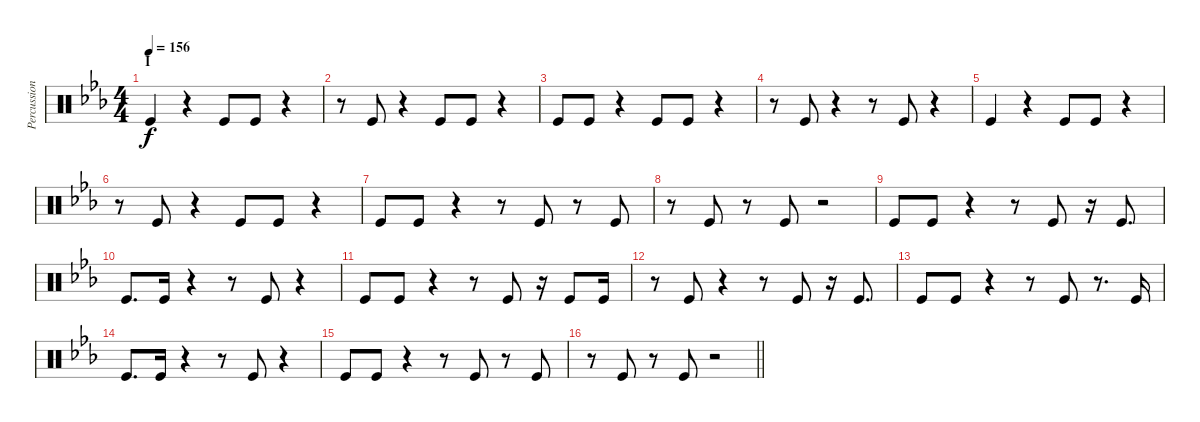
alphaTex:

\track ("Percussion foot" "Percussion") {instrument percussion}
\staff {score}
\articulation defaults
\ts (4 4)
\section ("" "I")
\tempo 156
\clef neutral
\ks eb "Kick (hit)".4{dy f}
r.4 "Kick (hit)".8 "Kick (hit)".8 r.4 |
r.8 "Kick (hit)".8 r.4 "Kick (hit)".8 "Kick (hit)".8 r.4 |
"Kick (hit)".8 "Kick (hit)".8 r.4 "Kick (hit)".8 "Kick (hit)".8 r.4 |
r.8 "Kick (hit)".8 r.4 r.8 "Kick (hit)".8 r.4 |
"Kick (hit)".4 r.4 "Kick (hit)".8 "Kick (hit)".8 r.4 |
r.8 "Kick (hit)".8 r.4 "Kick (hit)".8 "Kick (hit)".8 r.4 |
"Kick (hit)".8 "Kick (hit)".8 r.4 r.8 "Kick (hit)".8 r.8 "Kick (hit)".8 |
r.8 "Kick (hit)".8 r.8 "Kick (hit)".8 r.2 |
"Kick (hit)".8 "Kick (hit)".8 r.4 r.8 "Kick (hit)".8 r.16 "Kick (hit)".8{d} |
"Kick (hit)".8{d} "Kick (hit)".16 r.4 r.8 "Kick (hit)".8 r.4 |
"Kick (hit)".8 "Kick (hit)".8 r.4 r.8 "Kick (hit)".8 r.16 "Kick (hit)".8 "Kick (hit)".16 |
r.8 "Kick (hit)".8 r.4 r.8 "Kick (hit)".8 r.16 "Kick (hit)".8{d} |
"Kick (hit)".8 "Kick (hit)".8 r.4 r.8 "Kick (hit)".8 r.8{d} "Kick (hit)".16 |
"Kick (hit)".8{d} "Kick (hit)".16 r.4 r.8 "Kick (hit)".8 r.4 |
"Kick (hit)".8 "Kick (hit)".8 r.4 r.8 "Kick (hit)".8 r.8 "Kick (hit)".8 |
\barLineRight lightlight
r.8 "Kick (hit)".8 r.8 "Kick (hit)".8 r.2
